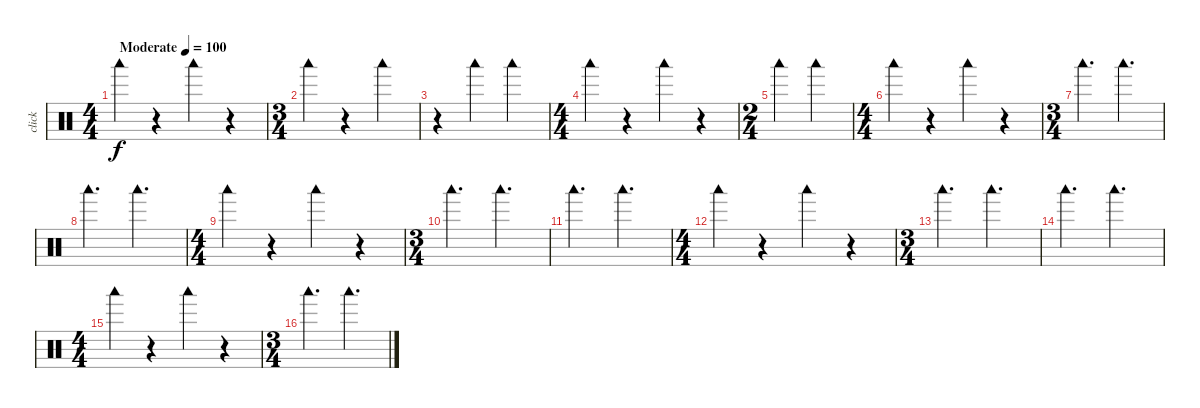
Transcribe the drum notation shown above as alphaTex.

\track ("click" "click") {mute instrument percussion}
\staff {score}
\articulation defaults
\ts (4 4)
\tempo (100 "Moderate")
\clef neutral
\ks c "Woodblock low (hit)".4{dy f}
r.4 "Woodblock low (hit)".4 r.4 |
\ts (3 4)
"Woodblock low (hit)".4 r.4 "Woodblock low (hit)".4 |
r.4 "Woodblock low (hit)".4 "Woodblock low (hit)".4 |
\ts (4 4)
"Woodblock low (hit)".4 r.4 "Woodblock low (hit)".4 r.4 |
\ts (2 4)
"Woodblock low (hit)".4 "Woodblock low (hit)".4 |
\ts (4 4)
"Woodblock low (hit)".4 r.4 "Woodblock low (hit)".4 r.4 |
\ts (3 4)
"Woodblock low (hit)".4{d} "Woodblock low (hit)".4{d} |
"Woodblock low (hit)".4{d} "Woodblock low (hit)".4{d} |
\ts (4 4)
"Woodblock low (hit)".4 r.4 "Woodblock low (hit)".4 r.4 |
\ts (3 4)
"Woodblock low (hit)".4{d} "Woodblock low (hit)".4{d} |
"Woodblock low (hit)".4{d} "Woodblock low (hit)".4{d} |
\ts (4 4)
"Woodblock low (hit)".4 r.4 "Woodblock low (hit)".4 r.4 |
\ts (3 4)
"Woodblock low (hit)".4{d} "Woodblock low (hit)".4{d} |
"Woodblock low (hit)".4{d} "Woodblock low (hit)".4{d} |
\ts (4 4)
"Woodblock low (hit)".4 r.4 "Woodblock low (hit)".4 r.4 |
\ts (3 4)
"Woodblock low (hit)".4{d} "Woodblock low (hit)".4{d}
